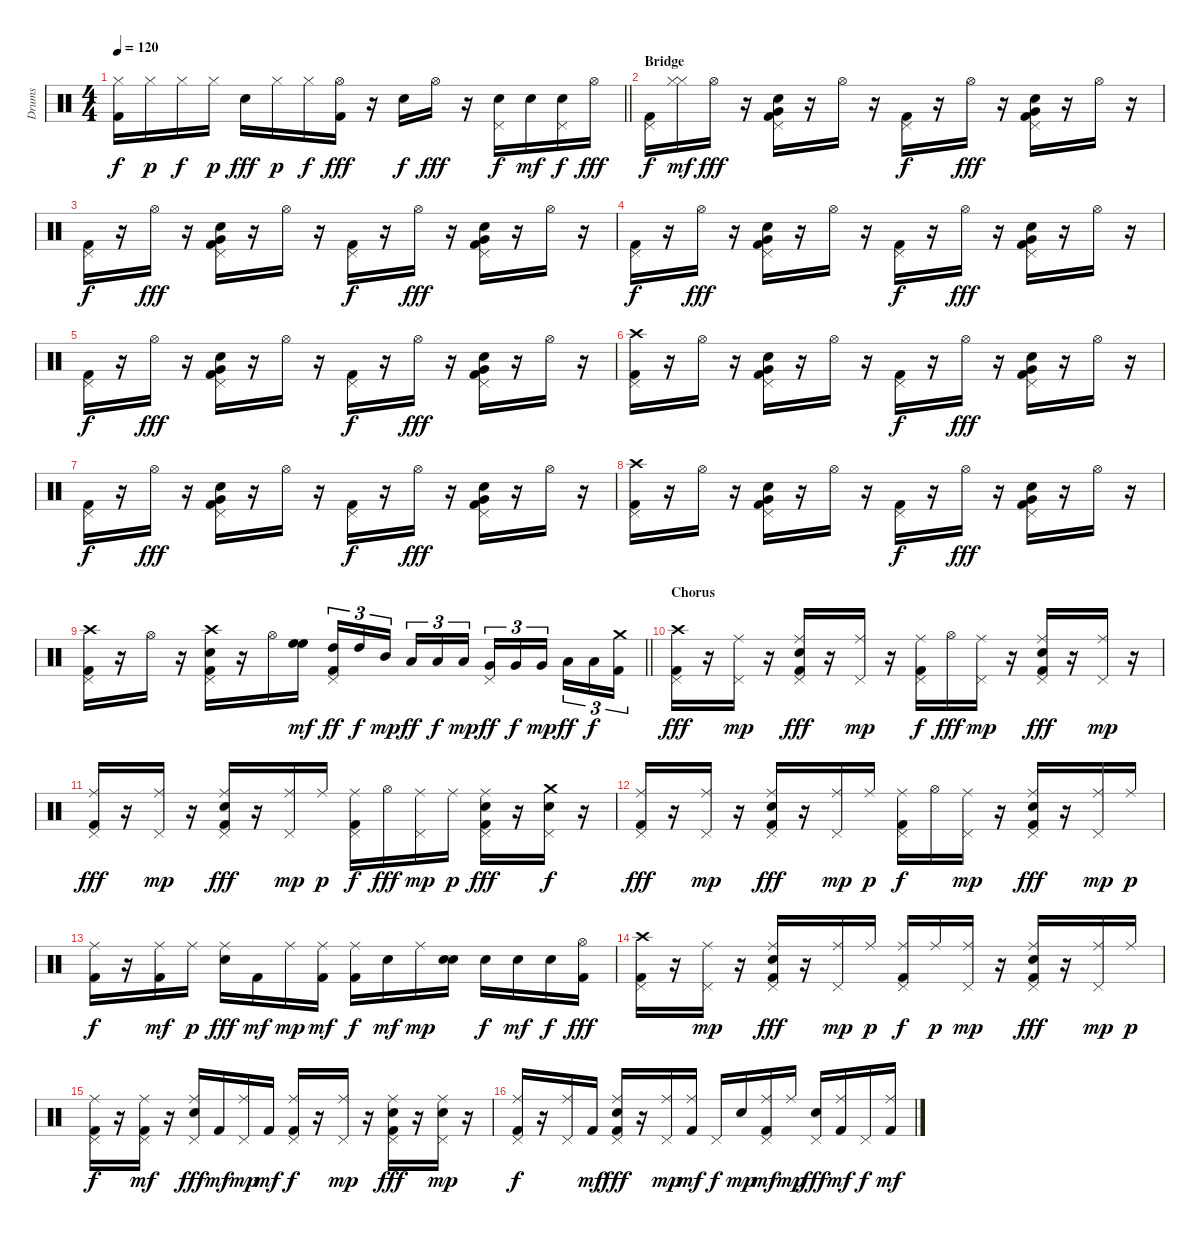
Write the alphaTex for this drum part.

\track ("Drums" "Drums") {instrument percussion}
\staff {score}
\articulation defaults
\ts (4 4)
\tempo 120
\clef neutral
\barLineRight lightlight
\ks c
("Kick (hit) 2" "Hi-Hat (closed)").16{dy f} "Hi-Hat (closed)".16{dy p} "Hi-Hat (closed)".16{dy f} "Hi-Hat (closed)".16{dy p} "Snare (hit) 2".16{dy fff} "Hi-Hat (closed)".16{dy p} "Hi-Hat (closed)".16{dy f} ("Kick (hit) 2" "Hi-Hat (open)").16{dy fff} r.16 "Snare (hit) 2".16{dy f} "Hi-Hat (open)".16{dy fff} r.16 ("Snare (hit) 2" "Pedal Hi-Hat (hit)").16{dy f} "Snare (hit) 2".16{dy mf} ("Snare (hit) 2" "Pedal Hi-Hat (hit)").16{dy f} "Hi-Hat (open)".16{dy fff} |
\section ("" "Bridge")
("Kick (hit) 2" "Pedal Hi-Hat (hit)").16{dy f} ("Hi-Hat (closed)" "Hi-Hat (closed)").16{dy mf} "Hi-Hat (open)".16{dy fff} r.16 ("Kick (hit) 2" "Pedal Hi-Hat (hit)" "Snare (hit) 2" "Very Low Tom (hit)").16 r.16 "Hi-Hat (open)".16 r.16 ("Kick (hit) 2" "Pedal Hi-Hat (hit)").16{dy f} r.16 "Hi-Hat (open)".16{dy fff} r.16 ("Kick (hit) 2" "Pedal Hi-Hat (hit)" "Snare (hit) 2" "Very Low Tom (hit)").16 r.16 "Hi-Hat (open)".16 r.16 |
("Kick (hit) 2" "Pedal Hi-Hat (hit)").16{dy f} r.16 "Hi-Hat (open)".16{dy fff} r.16 ("Kick (hit) 2" "Pedal Hi-Hat (hit)" "Snare (hit) 2" "Very Low Tom (hit)").16 r.16 "Hi-Hat (open)".16 r.16 ("Kick (hit) 2" "Pedal Hi-Hat (hit)").16{dy f} r.16 "Hi-Hat (open)".16{dy fff} r.16 ("Kick (hit) 2" "Pedal Hi-Hat (hit)" "Snare (hit) 2" "Very Low Tom (hit)").16 r.16 "Hi-Hat (open)".16 r.16 |
("Kick (hit) 2" "Pedal Hi-Hat (hit)").16{dy f} r.16 "Hi-Hat (open)".16{dy fff} r.16 ("Kick (hit) 2" "Pedal Hi-Hat (hit)" "Snare (hit) 2" "Very Low Tom (hit)").16 r.16 "Hi-Hat (open)".16 r.16 ("Kick (hit) 2" "Pedal Hi-Hat (hit)").16{dy f} r.16 "Hi-Hat (open)".16{dy fff} r.16 ("Kick (hit) 2" "Pedal Hi-Hat (hit)" "Snare (hit) 2" "Very Low Tom (hit)").16 r.16 "Hi-Hat (open)".16 r.16 |
("Kick (hit) 2" "Pedal Hi-Hat (hit)").16{dy f} r.16 "Hi-Hat (open)".16{dy fff} r.16 ("Kick (hit) 2" "Pedal Hi-Hat (hit)" "Snare (hit) 2" "Very Low Tom (hit)").16 r.16 "Hi-Hat (open)".16 r.16 ("Kick (hit) 2" "Pedal Hi-Hat (hit)").16{dy f} r.16 "Hi-Hat (open)".16{dy fff} r.16 ("Kick (hit) 2" "Pedal Hi-Hat (hit)" "Snare (hit) 2" "Very Low Tom (hit)").16 r.16 "Hi-Hat (open)".16 r.16 |
("Kick (hit) 2" "Pedal Hi-Hat (hit)" "Crash high (hit)").16 r.16 "Hi-Hat (open)".16 r.16 ("Kick (hit) 2" "Pedal Hi-Hat (hit)" "Snare (hit) 2" "Very Low Tom (hit)").16 r.16 "Hi-Hat (open)".16 r.16 ("Kick (hit) 2" "Pedal Hi-Hat (hit)").16{dy f} r.16 "Hi-Hat (open)".16{dy fff} r.16 ("Kick (hit) 2" "Pedal Hi-Hat (hit)" "Snare (hit) 2" "Very Low Tom (hit)").16 r.16 "Hi-Hat (open)".16 r.16 |
("Kick (hit) 2" "Pedal Hi-Hat (hit)").16{dy f} r.16 "Hi-Hat (open)".16{dy fff} r.16 ("Kick (hit) 2" "Pedal Hi-Hat (hit)" "Snare (hit) 2" "Very Low Tom (hit)").16 r.16 "Hi-Hat (open)".16 r.16 ("Kick (hit) 2" "Pedal Hi-Hat (hit)").16{dy f} r.16 "Hi-Hat (open)".16{dy fff} r.16 ("Kick (hit) 2" "Pedal Hi-Hat (hit)" "Snare (hit) 2" "Very Low Tom (hit)").16 r.16 "Hi-Hat (open)".16 r.16 |
("Kick (hit) 2" "Pedal Hi-Hat (hit)" "Crash high (hit)").16 r.16 "Hi-Hat (open)".16 r.16 ("Kick (hit) 2" "Pedal Hi-Hat (hit)" "Snare (hit) 2" "Very Low Tom (hit)").16 r.16 "Hi-Hat (open)".16 r.16 ("Kick (hit) 2" "Pedal Hi-Hat (hit)").16{dy f} r.16 "Hi-Hat (open)".16{dy fff} r.16 ("Kick (hit) 2" "Pedal Hi-Hat (hit)" "Snare (hit) 2" "Very Low Tom (hit)").16 r.16 "Hi-Hat (open)".16 r.16 |
\barLineRight lightlight
("Kick (hit) 2" "Pedal Hi-Hat (hit)" "Crash high (hit)").16 r.16 "Hi-Hat (open)".16 r.16 ("Kick (hit) 2" "Pedal Hi-Hat (hit)" "Snare (hit) 2" "Crash high (hit)").16 r.16 "Hi-Hat (open)".16 ("High Floor Tom (hit)" "High Floor Tom (hit)").16{dy mf} ("Pedal Hi-Hat (hit)" "High Tom (hit)" "Kick (hit) 2").16{tu (3 2) dy ff} "High Tom (hit)".16{tu (3 2) dy f} "Mid Tom (hit)".16{tu (3 2) dy mp beam splitsecondary} "Low Tom (hit)".16{tu (3 2) dy ff} "Low Tom (hit)".16{tu (3 2) dy f} "Low Tom (hit)".16{tu (3 2) dy mp} ("Pedal Hi-Hat (hit)" "Very Low Tom (hit)").16{tu (3 2) dy ff} "Very Low Tom (hit)".16{tu (3 2) dy f} "Very Low Tom (hit)".16{tu (3 2) dy mp beam splitsecondary} "Low Floor Tom (hit)".16{tu (3 2) dy ff} "Low Floor Tom (hit)".16{tu (3 2) dy f} ("Kick (hit) 2" "Crash medium (hit)").16{tu (3 2)} |
\section ("" "Chorus")
("Crash high (hit)" "Kick (hit) 2" "Pedal Hi-Hat (hit)").16{dy fff} r.16 ("Ride (middle)" "Pedal Hi-Hat (hit)").16{dy mp} r.16 ("Ride (middle)" "Snare (hit) 2" "Kick (hit) 2" "Pedal Hi-Hat (hit)").16{dy fff} r.16 ("Ride (middle)" "Pedal Hi-Hat (hit)").16{dy mp} r.16 ("Ride (middle)" "Kick (hit) 2" "Pedal Hi-Hat (hit)").16{dy f} "Hi-Hat (open)".16{dy fff} ("Ride (middle)" "Pedal Hi-Hat (hit)").16{dy mp} r.16 ("Ride (middle)" "Snare (hit) 2" "Kick (hit) 2" "Pedal Hi-Hat (hit)").16{dy fff} r.16 ("Ride (middle)" "Pedal Hi-Hat (hit)").16{dy mp} r.16 |
("Ride (middle)" "Kick (hit) 2" "Pedal Hi-Hat (hit)").16{dy fff} r.16 ("Ride (middle)" "Pedal Hi-Hat (hit)").16{dy mp} r.16 ("Ride (middle)" "Kick (hit) 2" "Pedal Hi-Hat (hit)" "Snare (hit) 2").16{dy fff} r.16 ("Ride (middle)" "Pedal Hi-Hat (hit)").16{dy mp} "Ride (middle)".16{dy p} ("Ride (middle)" "Kick (hit) 2" "Pedal Hi-Hat (hit)").16{dy f} "Hi-Hat (open)".16{dy fff} ("Ride (middle)" "Pedal Hi-Hat (hit)").16{dy mp} "Ride (middle)".16{dy p} ("Ride (middle)" "Snare (hit) 2" "Kick (hit) 2" "Pedal Hi-Hat (hit)").16{dy fff} r.16 ("Snare (hit) 2" "Crash medium (hit)" "Pedal Hi-Hat (hit)").16{dy f} r.16 |
("Ride (middle)" "Kick (hit) 2" "Pedal Hi-Hat (hit)").16{dy fff} r.16 ("Ride (middle)" "Pedal Hi-Hat (hit)").16{dy mp} r.16 ("Ride (middle)" "Snare (hit) 2" "Kick (hit) 2" "Pedal Hi-Hat (hit)").16{dy fff} r.16 ("Ride (middle)" "Pedal Hi-Hat (hit)").16{dy mp} "Ride (middle)".16{dy p} ("Ride (middle)" "Kick (hit) 2" "Pedal Hi-Hat (hit)").16{dy f} "Hi-Hat (open)".16 ("Ride (middle)" "Pedal Hi-Hat (hit)").16{dy mp} r.16 ("Ride (middle)" "Snare (hit) 2" "Kick (hit) 2" "Pedal Hi-Hat (hit)").16{dy fff} r.16 ("Ride (middle)" "Pedal Hi-Hat (hit)").16{dy mp} "Ride (middle)".16{dy p} |
("Ride (middle)" "Kick (hit) 2").16{dy f} r.16 ("Ride (middle)" "Kick (hit) 2").16{dy mf} "Ride (middle)".16{dy p} ("Ride (middle)" "Snare (hit) 2").16{dy fff} "Kick (hit) 2".16{dy mf} "Ride (middle)".16{dy mp} ("Ride (middle)" "Kick (hit) 2").16{dy mf} ("Ride (middle)" "Kick (hit) 2").16{dy f} "Snare (hit) 2".16{dy mf} "Ride (middle)".16{dy mp} ("Snare (hit) 2" "Snare (hit) 2").16 "Snare (hit) 2".16{dy f} "Snare (hit) 2".16{dy mf} "Snare (hit) 2".16{dy f} ("Hi-Hat (open)" "Kick (hit) 2").16{dy fff} |
("Crash high (hit)" "Kick (hit) 2" "Pedal Hi-Hat (hit)").16 r.16 ("Ride (middle)" "Pedal Hi-Hat (hit)").16{dy mp} r.16 ("Ride (middle)" "Snare (hit) 2" "Kick (hit) 2" "Pedal Hi-Hat (hit)").16{dy fff} r.16 ("Ride (middle)" "Pedal Hi-Hat (hit)").16{dy mp} "Ride (middle)".16{dy p} ("Ride (middle)" "Kick (hit) 2" "Pedal Hi-Hat (hit)").16{dy f} "Ride (middle)".16{dy p} ("Ride (middle)" "Pedal Hi-Hat (hit)").16{dy mp} r.16 ("Ride (middle)" "Snare (hit) 2" "Kick (hit) 2" "Pedal Hi-Hat (hit)").16{dy fff} r.16 ("Ride (middle)" "Pedal Hi-Hat (hit)").16{dy mp} "Ride (middle)".16{dy p} |
("Ride (middle)" "Kick (hit) 2" "Pedal Hi-Hat (hit)").16{dy f} r.16 ("Ride (middle)" "Kick (hit) 2" "Pedal Hi-Hat (hit)").16{dy mf} r.16 ("Ride (middle)" "Snare (hit) 2" "Pedal Hi-Hat (hit)").16{dy fff} "Kick (hit) 2".16{dy mf} ("Ride (middle)" "Pedal Hi-Hat (hit)").16{dy mp} "Kick (hit) 2".16{dy mf} ("Ride (middle)" "Kick (hit) 2" "Pedal Hi-Hat (hit)").16{dy f} r.16 ("Ride (middle)" "Pedal Hi-Hat (hit)").16{dy mp} r.16 ("Ride (middle)" "Snare (hit) 2" "Kick (hit) 2" "Pedal Hi-Hat (hit)").16{dy fff} r.16 ("Ride (middle)" "Snare (hit) 2" "Pedal Hi-Hat (hit)").16{dy mp} r.16 |
("Ride (middle)" "Kick (hit) 2" "Pedal Hi-Hat (hit)").16{dy f} r.16 ("Ride (middle)" "Pedal Hi-Hat (hit)").16 "Kick (hit) 2".16{dy mf} ("Ride (middle)" "Snare (hit) 2" "Kick (hit) 2" "Pedal Hi-Hat (hit)").16{dy fff} r.16 ("Ride (middle)" "Pedal Hi-Hat (hit)").16{dy mp} ("Ride (middle)" "Kick (hit) 2").16{dy mf} "Pedal Hi-Hat (hit)".16{dy f} "Snare (hit) 2".16{dy mp} ("Ride (middle)" "Kick (hit) 2" "Pedal Hi-Hat (hit)").16{dy mf} "Ride (middle)".16{dy mp} ("Snare (hit) 2" "Pedal Hi-Hat (hit)").16{dy fff} ("Ride (middle)" "Kick (hit) 2").16{dy mf} "Pedal Hi-Hat (hit)".16{dy f} ("Ride (middle)" "Kick (hit) 2").16{dy mf}
